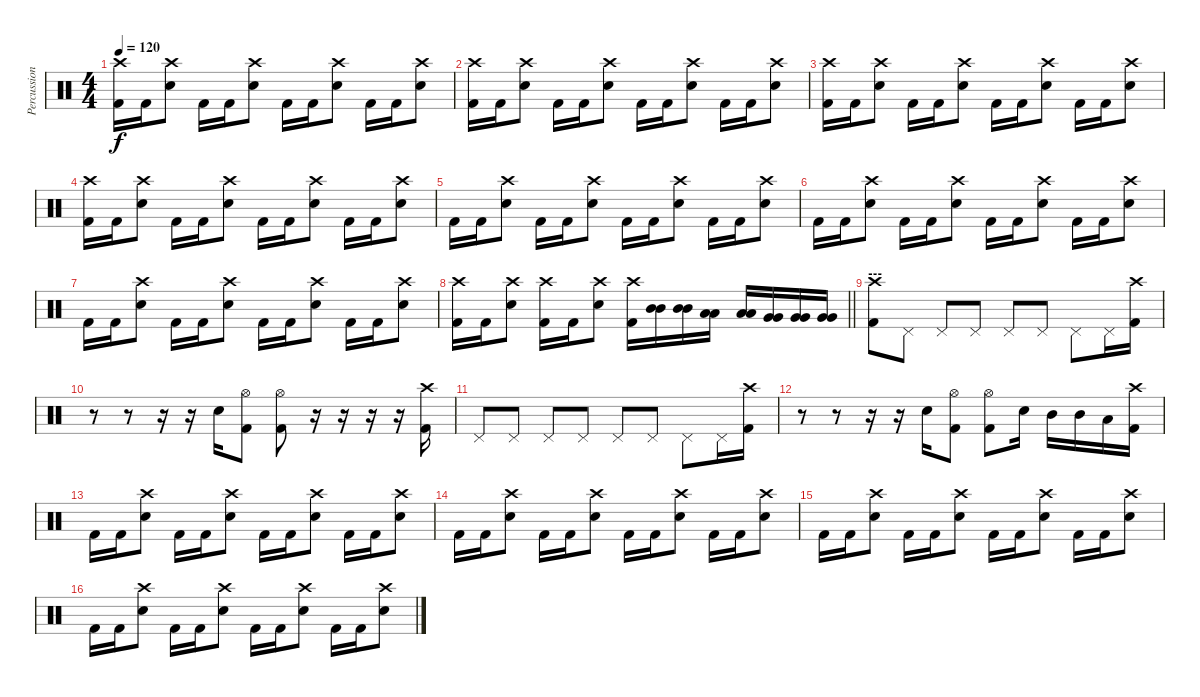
\track ("Percussion" "Percussion") {instrument percussion}
\staff {score}
\articulation defaults
\ts (4 4)
\tempo 120
\clef neutral
\ks c
("Crash high (hit)" "Kick (hit) 2").16{dy f} "Kick (hit) 2".16 ("Crash high (hit)" "Electric Snare (hit)").8 "Kick (hit) 2".16 "Kick (hit) 2".16 ("Crash high (hit)" "Electric Snare (hit)").8 "Kick (hit) 2".16 "Kick (hit) 2".16 ("Crash high (hit)" "Electric Snare (hit)").8 "Kick (hit) 2".16 "Kick (hit) 2".16 ("Crash high (hit)" "Electric Snare (hit)").8 |
("Crash high (hit)" "Kick (hit) 2").16 "Kick (hit) 2".16 ("Crash high (hit)" "Electric Snare (hit)").8 "Kick (hit) 2".16 "Kick (hit) 2".16 ("Crash high (hit)" "Electric Snare (hit)").8 "Kick (hit) 2".16 "Kick (hit) 2".16 ("Crash high (hit)" "Electric Snare (hit)").8 "Kick (hit) 2".16 "Kick (hit) 2".16 ("Crash high (hit)" "Electric Snare (hit)").8 |
("Crash high (hit)" "Kick (hit) 2").16 "Kick (hit) 2".16 ("Crash high (hit)" "Electric Snare (hit)").8 "Kick (hit) 2".16 "Kick (hit) 2".16 ("Crash high (hit)" "Electric Snare (hit)").8 "Kick (hit) 2".16 "Kick (hit) 2".16 ("Crash high (hit)" "Electric Snare (hit)").8 "Kick (hit) 2".16 "Kick (hit) 2".16 ("Crash high (hit)" "Electric Snare (hit)").8 |
("Crash high (hit)" "Kick (hit) 2").16 "Kick (hit) 2".16 ("Crash high (hit)" "Electric Snare (hit)").8 "Kick (hit) 2".16 "Kick (hit) 2".16 ("Crash high (hit)" "Electric Snare (hit)").8 "Kick (hit) 2".16 "Kick (hit) 2".16 ("Crash high (hit)" "Electric Snare (hit)").8 "Kick (hit) 2".16 "Kick (hit) 2".16 ("Crash high (hit)" "Electric Snare (hit)").8 |
"Kick (hit) 2".16 "Kick (hit) 2".16 ("Crash high (hit)" "Electric Snare (hit)").8 "Kick (hit) 2".16 "Kick (hit) 2".16 ("Crash high (hit)" "Electric Snare (hit)").8 "Kick (hit) 2".16 "Kick (hit) 2".16 ("Crash high (hit)" "Electric Snare (hit)").8 "Kick (hit) 2".16 "Kick (hit) 2".16 ("Crash high (hit)" "Electric Snare (hit)").8 |
"Kick (hit) 2".16 "Kick (hit) 2".16 ("Crash high (hit)" "Electric Snare (hit)").8 "Kick (hit) 2".16 "Kick (hit) 2".16 ("Crash high (hit)" "Electric Snare (hit)").8 "Kick (hit) 2".16 "Kick (hit) 2".16 ("Crash high (hit)" "Electric Snare (hit)").8 "Kick (hit) 2".16 "Kick (hit) 2".16 ("Crash high (hit)" "Electric Snare (hit)").8 |
"Kick (hit) 2".16 "Kick (hit) 2".16 ("Crash high (hit)" "Electric Snare (hit)").8 "Kick (hit) 2".16 "Kick (hit) 2".16 ("Crash high (hit)" "Electric Snare (hit)").8 "Kick (hit) 2".16 "Kick (hit) 2".16 ("Crash high (hit)" "Electric Snare (hit)").8 "Kick (hit) 2".16 "Kick (hit) 2".16 ("Crash high (hit)" "Electric Snare (hit)").8 |
\barLineRight lightlight
("Crash high (hit)" "Kick (hit) 2").16 "Kick (hit) 2".16 ("Crash high (hit)" "Electric Snare (hit)").8 ("Crash high (hit)" "Kick (hit) 2").16 "Kick (hit) 2".16 ("Crash high (hit)" "Electric Snare (hit)").8 ("Crash high (hit)" "Kick (hit) 2").16 ("Mid Tom (hit)" "Mid Tom (hit)").16 ("Mid Tom (hit)" "Mid Tom (hit)").16 ("Low Tom (hit)" "Low Tom (hit)").16 ("Low Tom (hit)" "Low Tom (hit)").16 ("Very Low Tom (hit)" "Very Low Tom (hit)").16 ("Very Low Tom (hit)" "Very Low Tom (hit)").16 ("Very Low Tom (hit)" "Very Low Tom (hit)").16 |
\section ("" "---")
("Crash high (hit)" "Kick (hit) 2").8 "Pedal Hi-Hat (hit)".8 "Pedal Hi-Hat (hit)".8 "Pedal Hi-Hat (hit)".8 "Pedal Hi-Hat (hit)".8 "Pedal Hi-Hat (hit)".8 "Pedal Hi-Hat (hit)".8 "Pedal Hi-Hat (hit)".16 ("Crash high (hit)" "Kick (hit) 2").16 |
r.8 r.8 r.16 r.16 "Electric Snare (hit)".16 ("Hi-Hat (open)" "Kick (hit) 2").8 ("Hi-Hat (open)" "Kick (hit) 2").8 r.16 r.16 r.16 r.16 ("Crash high (hit)" "Kick (hit) 2").16 |
"Pedal Hi-Hat (hit)".8 "Pedal Hi-Hat (hit)".8 "Pedal Hi-Hat (hit)".8 "Pedal Hi-Hat (hit)".8 "Pedal Hi-Hat (hit)".8 "Pedal Hi-Hat (hit)".8 "Pedal Hi-Hat (hit)".8 "Pedal Hi-Hat (hit)".16 ("Crash high (hit)" "Kick (hit) 2").16 |
r.8 r.8 r.16 r.16 "Electric Snare (hit)".16 ("Hi-Hat (open)" "Kick (hit) 2").8 ("Hi-Hat (open)" "Kick (hit) 2").8 "Electric Snare (hit)".16 "Mid Tom (hit)".16 "Mid Tom (hit)".16 "Low Tom (hit)".16 ("Crash high (hit)" "Kick (hit) 2").16 |
"Kick (hit) 2".16 "Kick (hit) 2".16 ("Crash high (hit)" "Electric Snare (hit)").8 "Kick (hit) 2".16 "Kick (hit) 2".16 ("Crash high (hit)" "Electric Snare (hit)").8 "Kick (hit) 2".16 "Kick (hit) 2".16 ("Crash high (hit)" "Electric Snare (hit)").8 "Kick (hit) 2".16 "Kick (hit) 2".16 ("Crash high (hit)" "Electric Snare (hit)").8 |
"Kick (hit) 2".16 "Kick (hit) 2".16 ("Crash high (hit)" "Electric Snare (hit)").8 "Kick (hit) 2".16 "Kick (hit) 2".16 ("Crash high (hit)" "Electric Snare (hit)").8 "Kick (hit) 2".16 "Kick (hit) 2".16 ("Crash high (hit)" "Electric Snare (hit)").8 "Kick (hit) 2".16 "Kick (hit) 2".16 ("Crash high (hit)" "Electric Snare (hit)").8 |
"Kick (hit) 2".16 "Kick (hit) 2".16 ("Crash high (hit)" "Electric Snare (hit)").8 "Kick (hit) 2".16 "Kick (hit) 2".16 ("Crash high (hit)" "Electric Snare (hit)").8 "Kick (hit) 2".16 "Kick (hit) 2".16 ("Crash high (hit)" "Electric Snare (hit)").8 "Kick (hit) 2".16 "Kick (hit) 2".16 ("Crash high (hit)" "Electric Snare (hit)").8 |
"Kick (hit) 2".16 "Kick (hit) 2".16 ("Crash high (hit)" "Electric Snare (hit)").8 "Kick (hit) 2".16 "Kick (hit) 2".16 ("Crash high (hit)" "Electric Snare (hit)").8 "Kick (hit) 2".16 "Kick (hit) 2".16 ("Crash high (hit)" "Electric Snare (hit)").8 "Kick (hit) 2".16 "Kick (hit) 2".16 ("Crash high (hit)" "Electric Snare (hit)").8
